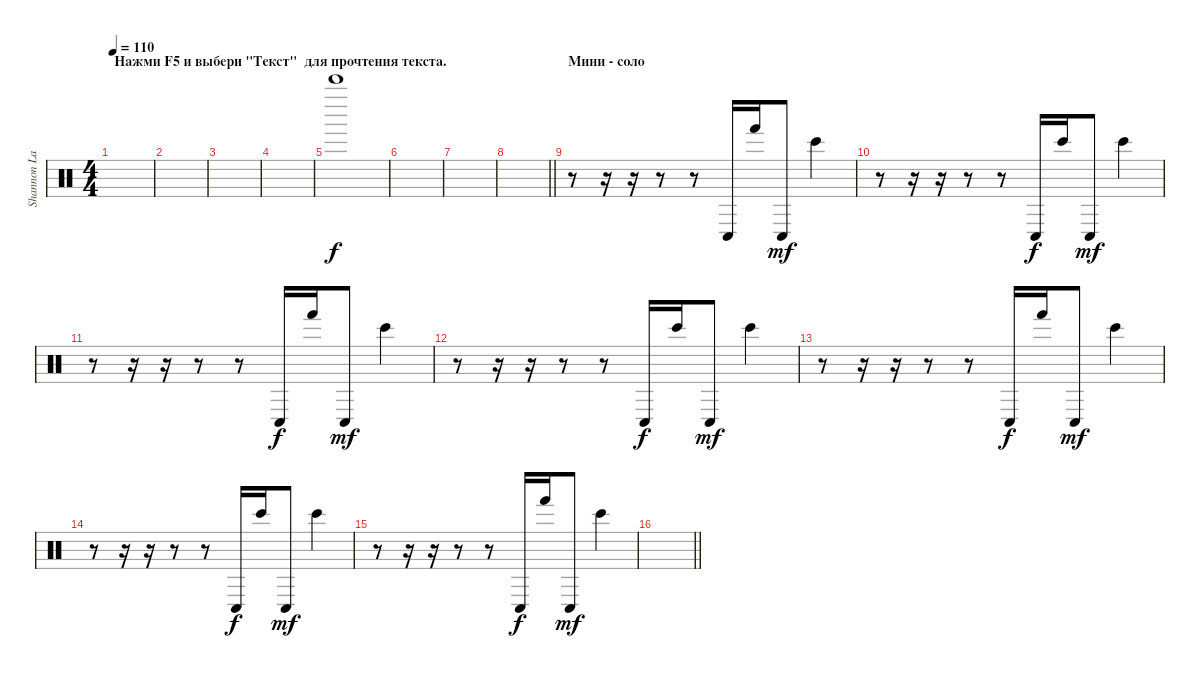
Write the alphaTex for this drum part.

\track ("Shannon Larkin [Percussion 2]" "Shannon La") {instrument percussion}
\staff {score}
\articulation defaults
\ts (4 4)
\section ("" "Нажми F5 и выбери \"Текст\"  для прочтения текста.")
\tempo 110
\clef neutral
\ks c
|
|
|
|
"Bell Tree (hit)".1 |
|
|
\barLineRight lightlight
|
\section ("" "Мини - соло")
r.8 r.16 r.16 r.8 r.8 "Conga low (hit)".16 "Hand (hit)".16 "Conga low (hit)".8{dy mf} "Bongo High (hit)".4 |
r.8 r.16 r.16 r.8 r.8 "Conga low (hit)".16{dy f} "Bongo High (hit)".16 "Conga low (hit)".8{dy mf} "Bongo High (hit)".4 |
r.8 r.16 r.16 r.8 r.8 "Conga low (hit)".16{dy f} "Hand (hit)".16 "Conga low (hit)".8{dy mf} "Bongo High (hit)".4 |
r.8 r.16 r.16 r.8 r.8 "Conga low (hit)".16{dy f} "Bongo High (hit)".16 "Conga low (hit)".8{dy mf} "Bongo High (hit)".4 |
r.8 r.16 r.16 r.8 r.8 "Conga low (hit)".16{dy f} "Hand (hit)".16 "Conga low (hit)".8{dy mf} "Bongo High (hit)".4 |
r.8 r.16 r.16 r.8 r.8 "Conga low (hit)".16{dy f} "Bongo High (hit)".16 "Conga low (hit)".8{dy mf} "Bongo High (hit)".4 |
r.8 r.16 r.16 r.8 r.8 "Conga low (hit)".16{dy f} "Hand (hit)".16 "Conga low (hit)".8{dy mf} "Bongo High (hit)".4 |
\barLineRight lightlight
